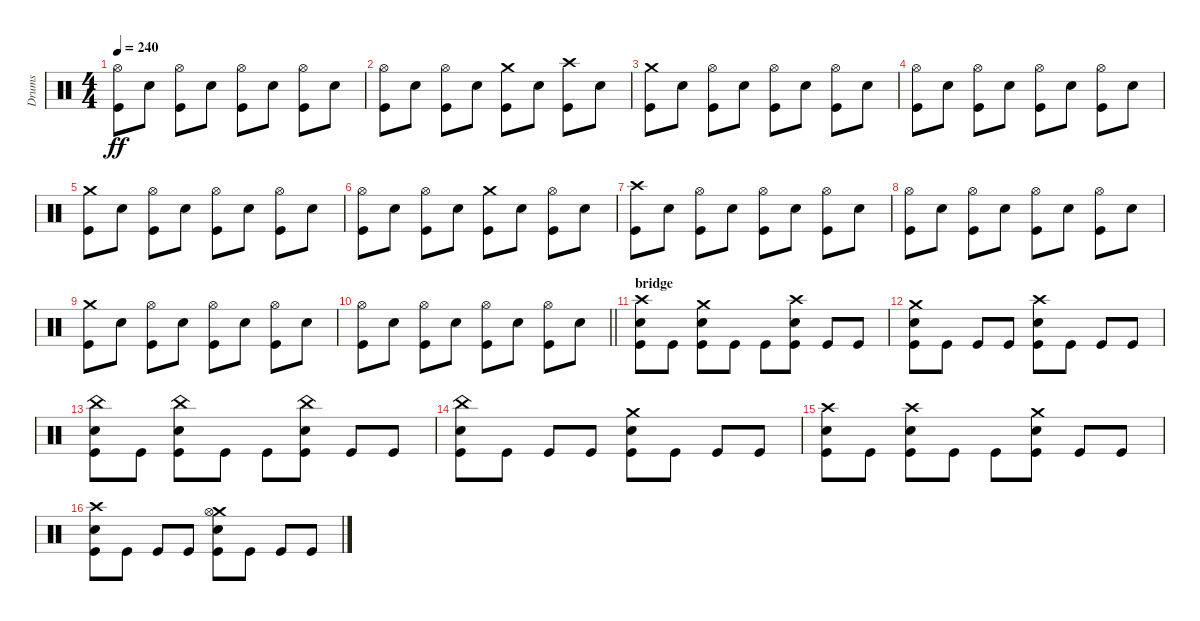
\track ("Drums" "Drums") {instrument percussion}
\staff {score}
\articulation defaults
\ts (4 4)
\tempo 240
\clef neutral
\ks c
("Hi-Hat (open)" "Kick (hit)").8{dy ff} "Electric Snare (hit)".8 ("Hi-Hat (open)" "Kick (hit)").8 "Electric Snare (hit)".8 ("Hi-Hat (open)" "Kick (hit)").8 "Electric Snare (hit)".8 ("Hi-Hat (open)" "Kick (hit)").8 "Electric Snare (hit)".8 |
("Hi-Hat (open)" "Kick (hit)").8 "Electric Snare (hit)".8 ("Hi-Hat (open)" "Kick (hit)").8 "Electric Snare (hit)".8 ("Crash medium (hit)" "Kick (hit)").8 "Electric Snare (hit)".8 ("Crash high (hit)" "Kick (hit)").8 "Electric Snare (hit)".8 |
("Crash medium (hit)" "Kick (hit)").8 "Electric Snare (hit)".8 ("Hi-Hat (open)" "Kick (hit)").8 "Electric Snare (hit)".8 ("Hi-Hat (open)" "Kick (hit)").8 "Electric Snare (hit)".8 ("Hi-Hat (open)" "Kick (hit)").8 "Electric Snare (hit)".8 |
("Hi-Hat (open)" "Kick (hit)").8 "Electric Snare (hit)".8 ("Hi-Hat (open)" "Kick (hit)").8 "Electric Snare (hit)".8 ("Hi-Hat (open)" "Kick (hit)").8 "Electric Snare (hit)".8 ("Hi-Hat (open)" "Kick (hit)").8 "Electric Snare (hit)".8 |
("Crash medium (hit)" "Kick (hit)").8 "Electric Snare (hit)".8 ("Hi-Hat (open)" "Kick (hit)").8 "Electric Snare (hit)".8 ("Hi-Hat (open)" "Kick (hit)").8 "Electric Snare (hit)".8 ("Hi-Hat (open)" "Kick (hit)").8 "Electric Snare (hit)".8 |
("Hi-Hat (open)" "Kick (hit)").8 "Electric Snare (hit)".8 ("Hi-Hat (open)" "Kick (hit)").8 "Electric Snare (hit)".8 ("Crash medium (hit)" "Kick (hit)").8 "Electric Snare (hit)".8 ("Hi-Hat (open)" "Kick (hit)").8 "Electric Snare (hit)".8 |
("Crash high (hit)" "Kick (hit)").8 "Electric Snare (hit)".8 ("Hi-Hat (open)" "Kick (hit)").8 "Electric Snare (hit)".8 ("Hi-Hat (open)" "Kick (hit)").8 "Electric Snare (hit)".8 ("Hi-Hat (open)" "Kick (hit)").8 "Electric Snare (hit)".8 |
("Hi-Hat (open)" "Kick (hit)").8 "Electric Snare (hit)".8 ("Hi-Hat (open)" "Kick (hit)").8 "Electric Snare (hit)".8 ("Hi-Hat (open)" "Kick (hit)").8 "Electric Snare (hit)".8 ("Hi-Hat (open)" "Kick (hit)").8 "Electric Snare (hit)".8 |
("Crash medium (hit)" "Kick (hit)").8 "Electric Snare (hit)".8 ("Hi-Hat (open)" "Kick (hit)").8 "Electric Snare (hit)".8 ("Hi-Hat (open)" "Kick (hit)").8 "Electric Snare (hit)".8 ("Hi-Hat (open)" "Kick (hit)").8 "Electric Snare (hit)".8 |
\barLineRight lightlight
("Hi-Hat (open)" "Kick (hit)").8 "Electric Snare (hit)".8 ("Hi-Hat (open)" "Kick (hit)").8 "Electric Snare (hit)".8 ("Hi-Hat (open)" "Kick (hit)").8 "Electric Snare (hit)".8 ("Hi-Hat (open)" "Kick (hit)").8 "Electric Snare (hit)".8 |
\section ("" "bridge")
("Crash high (hit)" "Electric Snare (hit)" "Kick (hit)").8 "Kick (hit)".8 ("Crash medium (hit)" "Electric Snare (hit)" "Kick (hit)").8 "Kick (hit)".8 "Kick (hit)".8 ("Crash high (hit)" "Electric Snare (hit)" "Kick (hit)").8 "Kick (hit)".8 "Kick (hit)".8 |
("Crash medium (hit)" "Electric Snare (hit)" "Kick (hit)").8 "Kick (hit)".8 "Kick (hit)".8 "Kick (hit)".8 ("Crash high (hit)" "Electric Snare (hit)" "Kick (hit)").8 "Kick (hit)".8 "Kick (hit)".8 "Kick (hit)".8 |
("China (hit)" "Electric Snare (hit)" "Kick (hit)").8 "Kick (hit)".8 ("China (hit)" "Electric Snare (hit)" "Kick (hit)").8 "Kick (hit)".8 "Kick (hit)".8 ("China (hit)" "Electric Snare (hit)" "Kick (hit)").8 "Kick (hit)".8 "Kick (hit)".8 |
("China (hit)" "Electric Snare (hit)" "Kick (hit)").8 "Kick (hit)".8 "Kick (hit)".8 "Kick (hit)".8 ("Crash medium (hit)" "Electric Snare (hit)" "Kick (hit)").8 "Kick (hit)".8 "Kick (hit)".8 "Kick (hit)".8 |
("Crash high (hit)" "Electric Snare (hit)" "Kick (hit)").8 "Kick (hit)".8 ("Crash high (hit)" "Electric Snare (hit)" "Kick (hit)").8 "Kick (hit)".8 "Kick (hit)".8 ("Crash medium (hit)" "Electric Snare (hit)" "Kick (hit)").8 "Kick (hit)".8 "Kick (hit)".8 |
("Crash high (hit)" "Electric Snare (hit)" "Kick (hit)").8 "Kick (hit)".8 "Kick (hit)".8 "Kick (hit)".8 ("Crash medium (hit)" "Hi-Hat (open)" "Electric Snare (hit)" "Kick (hit)").8 "Kick (hit)".8 "Kick (hit)".8 "Kick (hit)".8
